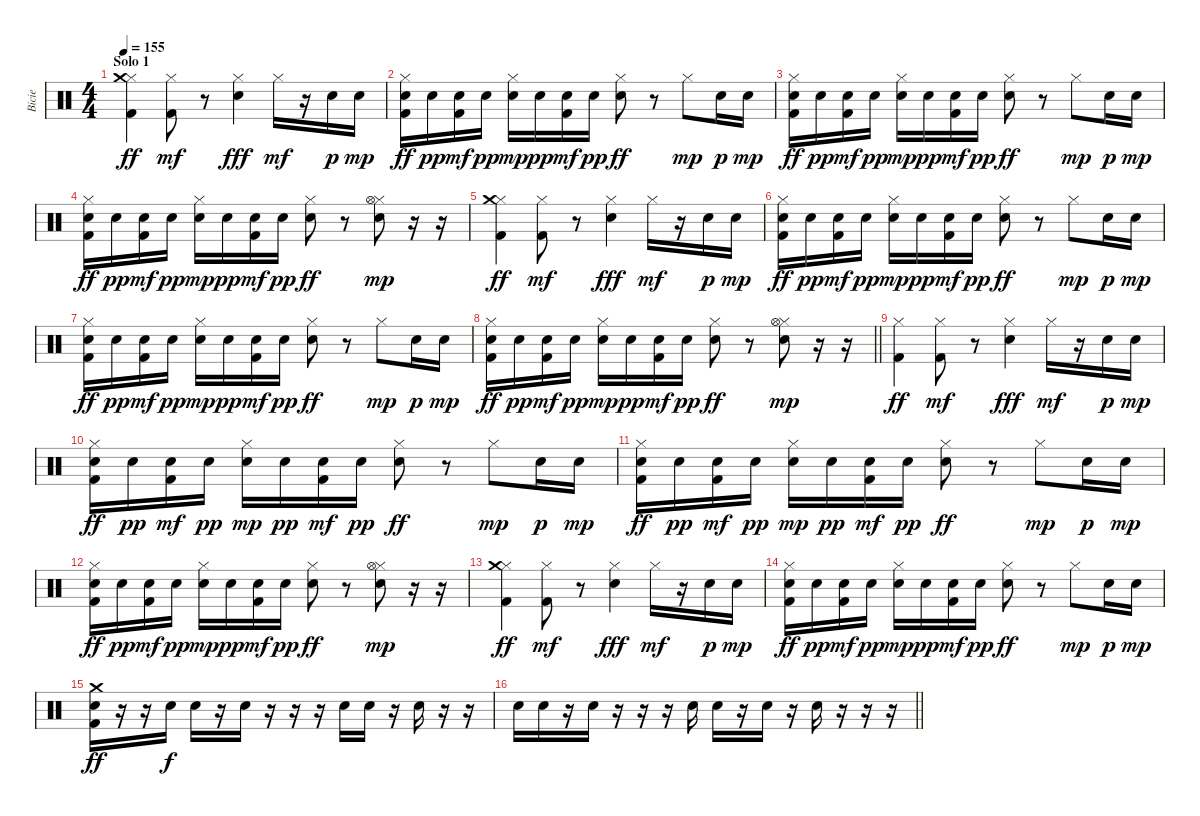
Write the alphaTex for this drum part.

\track ("Bicie" "Bicie") {instrument percussion}
\staff {score}
\articulation defaults
\ts (4 4)
\section ("" "Solo 1")
\tempo 155
\clef neutral
\ks c
("Hi-Hat (closed)" "Crash medium (hit)" "Kick (hit) 2").4{dy ff} ("Hi-Hat (closed)" "Kick (hit) 2").8{dy mf} r.8 ("Hi-Hat (closed)" "Electric Snare (hit)").4{dy fff} "Hi-Hat (closed)".16{dy mf} r.16 "Electric Snare (hit)".16{dy p} "Electric Snare (hit)".16{dy mp} |
("Hi-Hat (closed)" "Electric Snare (hit)" "Kick (hit) 2").16{dy ff} "Electric Snare (hit)".16{dy pp} ("Electric Snare (hit)" "Kick (hit) 2").16{dy mf} "Electric Snare (hit)".16{dy pp} ("Hi-Hat (closed)" "Electric Snare (hit)").16{dy mp} "Electric Snare (hit)".16{dy pp} ("Electric Snare (hit)" "Kick (hit) 2").16{dy mf} "Electric Snare (hit)".16{dy pp} ("Hi-Hat (closed)" "Electric Snare (hit)").8{dy ff} r.8 "Hi-Hat (closed)".8{dy mp} "Electric Snare (hit)".16{dy p} "Electric Snare (hit)".16{dy mp} |
("Hi-Hat (closed)" "Electric Snare (hit)" "Kick (hit) 2").16{dy ff} "Electric Snare (hit)".16{dy pp} ("Electric Snare (hit)" "Kick (hit) 2").16{dy mf} "Electric Snare (hit)".16{dy pp} ("Hi-Hat (closed)" "Electric Snare (hit)").16{dy mp} "Electric Snare (hit)".16{dy pp} ("Electric Snare (hit)" "Kick (hit) 2").16{dy mf} "Electric Snare (hit)".16{dy pp} ("Hi-Hat (closed)" "Electric Snare (hit)").8{dy ff} r.8 "Hi-Hat (closed)".8{dy mp} "Electric Snare (hit)".16{dy p} "Electric Snare (hit)".16{dy mp} |
("Hi-Hat (closed)" "Electric Snare (hit)" "Kick (hit) 2").16{dy ff} "Electric Snare (hit)".16{dy pp} ("Electric Snare (hit)" "Kick (hit) 2").16{dy mf} "Electric Snare (hit)".16{dy pp} ("Hi-Hat (closed)" "Electric Snare (hit)").16{dy mp} "Electric Snare (hit)".16{dy pp} ("Electric Snare (hit)" "Kick (hit) 2").16{dy mf} "Electric Snare (hit)".16{dy pp} ("Hi-Hat (closed)" "Electric Snare (hit)").8{dy ff} r.8 ("Hi-Hat (closed)" "Hi-Hat (open)" "Electric Snare (hit)").8{dy mp} r.16 r.16 |
("Hi-Hat (closed)" "Crash medium (hit)" "Kick (hit) 2").4{dy ff} ("Hi-Hat (closed)" "Kick (hit) 2").8{dy mf} r.8 ("Hi-Hat (closed)" "Electric Snare (hit)").4{dy fff} "Hi-Hat (closed)".16{dy mf} r.16 "Electric Snare (hit)".16{dy p} "Electric Snare (hit)".16{dy mp} |
("Hi-Hat (closed)" "Electric Snare (hit)" "Kick (hit) 2").16{dy ff} "Electric Snare (hit)".16{dy pp} ("Electric Snare (hit)" "Kick (hit) 2").16{dy mf} "Electric Snare (hit)".16{dy pp} ("Hi-Hat (closed)" "Electric Snare (hit)").16{dy mp} "Electric Snare (hit)".16{dy pp} ("Electric Snare (hit)" "Kick (hit) 2").16{dy mf} "Electric Snare (hit)".16{dy pp} ("Hi-Hat (closed)" "Electric Snare (hit)").8{dy ff} r.8 "Hi-Hat (closed)".8{dy mp} "Electric Snare (hit)".16{dy p} "Electric Snare (hit)".16{dy mp} |
("Hi-Hat (closed)" "Electric Snare (hit)" "Kick (hit) 2").16{dy ff} "Electric Snare (hit)".16{dy pp} ("Electric Snare (hit)" "Kick (hit) 2").16{dy mf} "Electric Snare (hit)".16{dy pp} ("Hi-Hat (closed)" "Electric Snare (hit)").16{dy mp} "Electric Snare (hit)".16{dy pp} ("Electric Snare (hit)" "Kick (hit) 2").16{dy mf} "Electric Snare (hit)".16{dy pp} ("Hi-Hat (closed)" "Electric Snare (hit)").8{dy ff} r.8 "Hi-Hat (closed)".8{dy mp} "Electric Snare (hit)".16{dy p} "Electric Snare (hit)".16{dy mp} |
\barLineRight lightlight
("Hi-Hat (closed)" "Electric Snare (hit)" "Kick (hit) 2").16{dy ff} "Electric Snare (hit)".16{dy pp} ("Electric Snare (hit)" "Kick (hit) 2").16{dy mf} "Electric Snare (hit)".16{dy pp} ("Hi-Hat (closed)" "Electric Snare (hit)").16{dy mp} "Electric Snare (hit)".16{dy pp} ("Electric Snare (hit)" "Kick (hit) 2").16{dy mf} "Electric Snare (hit)".16{dy pp} ("Hi-Hat (closed)" "Electric Snare (hit)").8{dy ff} r.8 ("Hi-Hat (closed)" "Hi-Hat (open)" "Electric Snare (hit)").8{dy mp} r.16 r.16 |
("Hi-Hat (closed)" "Kick (hit) 2").4{dy ff} ("Hi-Hat (closed)" "Kick (hit) 2").8{dy mf} r.8 ("Hi-Hat (closed)" "Electric Snare (hit)").4{dy fff} "Hi-Hat (closed)".16{dy mf} r.16 "Electric Snare (hit)".16{dy p} "Electric Snare (hit)".16{dy mp} |
("Hi-Hat (closed)" "Electric Snare (hit)" "Kick (hit) 2").16{dy ff} "Electric Snare (hit)".16{dy pp} ("Electric Snare (hit)" "Kick (hit) 2").16{dy mf} "Electric Snare (hit)".16{dy pp} ("Hi-Hat (closed)" "Electric Snare (hit)").16{dy mp} "Electric Snare (hit)".16{dy pp} ("Electric Snare (hit)" "Kick (hit) 2").16{dy mf} "Electric Snare (hit)".16{dy pp} ("Hi-Hat (closed)" "Electric Snare (hit)").8{dy ff} r.8 "Hi-Hat (closed)".8{dy mp} "Electric Snare (hit)".16{dy p} "Electric Snare (hit)".16{dy mp} |
("Hi-Hat (closed)" "Electric Snare (hit)" "Kick (hit) 2").16{dy ff} "Electric Snare (hit)".16{dy pp} ("Electric Snare (hit)" "Kick (hit) 2").16{dy mf} "Electric Snare (hit)".16{dy pp} ("Hi-Hat (closed)" "Electric Snare (hit)").16{dy mp} "Electric Snare (hit)".16{dy pp} ("Electric Snare (hit)" "Kick (hit) 2").16{dy mf} "Electric Snare (hit)".16{dy pp} ("Hi-Hat (closed)" "Electric Snare (hit)").8{dy ff} r.8 "Hi-Hat (closed)".8{dy mp} "Electric Snare (hit)".16{dy p} "Electric Snare (hit)".16{dy mp} |
("Hi-Hat (closed)" "Electric Snare (hit)" "Kick (hit) 2").16{dy ff} "Electric Snare (hit)".16{dy pp} ("Electric Snare (hit)" "Kick (hit) 2").16{dy mf} "Electric Snare (hit)".16{dy pp} ("Hi-Hat (closed)" "Electric Snare (hit)").16{dy mp} "Electric Snare (hit)".16{dy pp} ("Electric Snare (hit)" "Kick (hit) 2").16{dy mf} "Electric Snare (hit)".16{dy pp} ("Hi-Hat (closed)" "Electric Snare (hit)").8{dy ff} r.8 ("Hi-Hat (closed)" "Hi-Hat (open)" "Electric Snare (hit)").8{dy mp} r.16 r.16 |
("Hi-Hat (closed)" "Crash medium (hit)" "Kick (hit) 2").4{dy ff} ("Hi-Hat (closed)" "Kick (hit) 2").8{dy mf} r.8 ("Hi-Hat (closed)" "Electric Snare (hit)").4{dy fff} "Hi-Hat (closed)".16{dy mf} r.16 "Electric Snare (hit)".16{dy p} "Electric Snare (hit)".16{dy mp} |
("Hi-Hat (closed)" "Electric Snare (hit)" "Kick (hit) 2").16{dy ff} "Electric Snare (hit)".16{dy pp} ("Electric Snare (hit)" "Kick (hit) 2").16{dy mf} "Electric Snare (hit)".16{dy pp} ("Hi-Hat (closed)" "Electric Snare (hit)").16{dy mp} "Electric Snare (hit)".16{dy pp} ("Electric Snare (hit)" "Kick (hit) 2").16{dy mf} "Electric Snare (hit)".16{dy pp} ("Hi-Hat (closed)" "Electric Snare (hit)").8{dy ff} r.8 "Hi-Hat (closed)".8{dy mp} "Electric Snare (hit)".16{dy p} "Electric Snare (hit)".16{dy mp} |
("Electric Snare (hit)" "Crash medium (hit)" "Kick (hit) 2").16{dy ff} r.16 r.16 "Electric Snare (hit)".16{dy f} "Electric Snare (hit)".16 r.16 "Electric Snare (hit)".16 r.16 r.16 r.16 "Electric Snare (hit)".16 "Electric Snare (hit)".16 r.16 "Electric Snare (hit)".16 r.16 r.16 |
\barLineRight lightlight "Electric Snare (hit)".16 "Electric Snare (hit)".16
r.16 "Electric Snare (hit)".16 r.16 r.16 r.16 "Electric Snare (hit)".16 "Electric Snare (hit)".16 r.16 "Electric Snare (hit)".16 r.16 "Electric Snare (hit)".16 r.16 r.16 r.16
